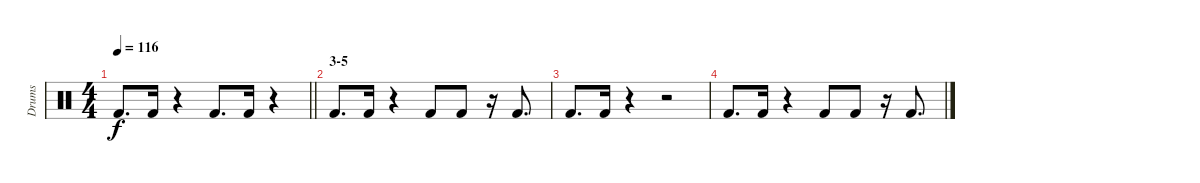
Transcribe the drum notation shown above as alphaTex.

\track ("Drums" "Drums") {instrument percussion}
\staff {score}
\articulation defaults
\ts (4 4)
\tempo 116
\clef neutral
\barLineRight lightlight
\ks c "Kick (hit) 2".8{d dy f} "Kick (hit) 2".16
r.4 "Kick (hit) 2".8{d} "Kick (hit) 2".16 r.4 |
\section ("" "3-5")
"Kick (hit) 2".8{d} "Kick (hit) 2".16 r.4 "Kick (hit) 2".8 "Kick (hit) 2".8 r.16 "Kick (hit) 2".8{d} |
"Kick (hit) 2".8{d} "Kick (hit) 2".16 r.4 r.2 |
"Kick (hit) 2".8{d} "Kick (hit) 2".16 r.4 "Kick (hit) 2".8 "Kick (hit) 2".8 r.16 "Kick (hit) 2".8{d}
